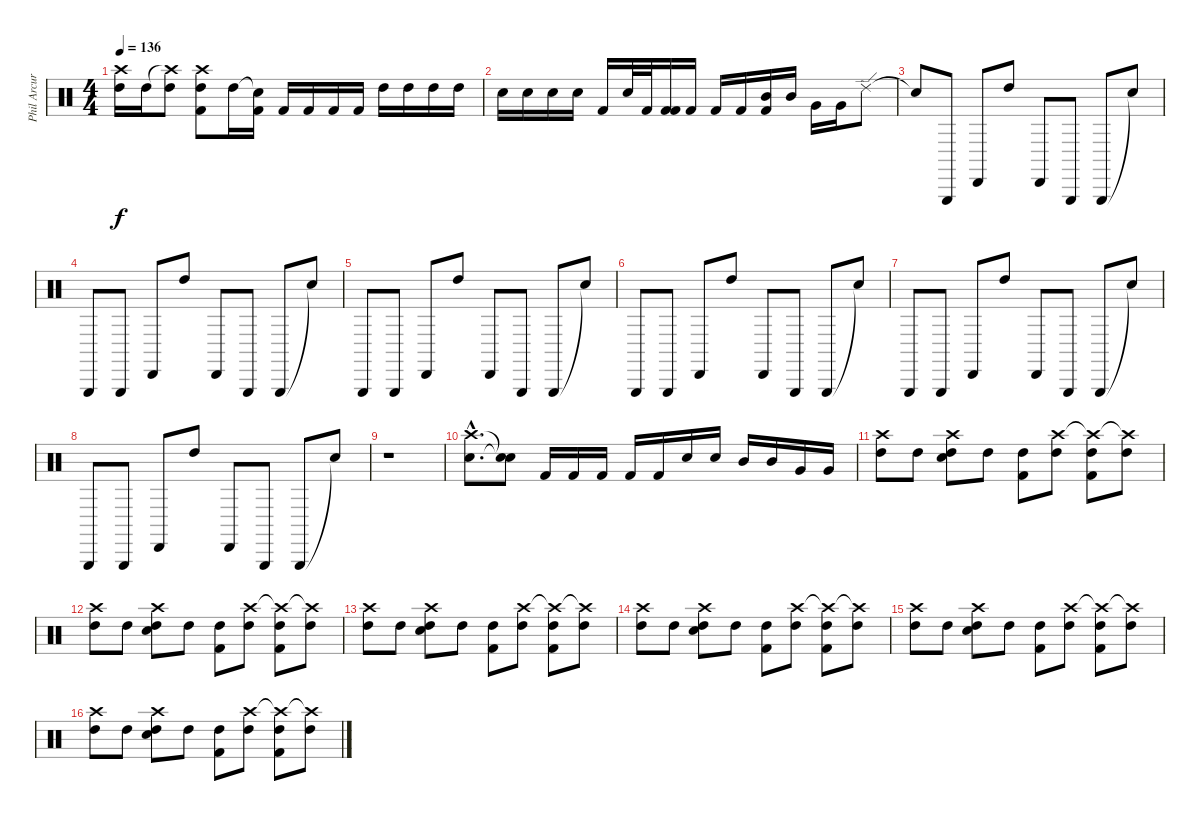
\track ("Phil Arcuri drums" "Phil Arcur") {instrument percussion}
\staff {score}
\articulation defaults
\ts (4 4)
\tempo 136
\clef neutral
\ks c
("Crash high (hit)" "High Tom (hit)").16{dy f} "High Tom (hit)".16 ("Crash high (hit)"{t} "High Tom (hit)").8 ("Crash high (hit)" "Kick (hit) 2" "High Tom (hit)").8 "High Tom (hit)".16 ("Snare (hit)"{t} "Kick (hit) 2").16 "Kick (hit) 2".16 "Kick (hit) 2".16 "Kick (hit) 2".16 "Kick (hit) 2".16 "High Tom (hit)".16 "High Tom (hit)".16 "High Tom (hit)".16 "High Tom (hit)".16 |
"Snare (hit) 2".16 "Snare (hit) 2".16 "Snare (hit) 2".16 "Snare (hit) 2".16 "Kick (hit) 2".16 "Electric Snare (hit)".32 "Kick (hit) 2".32 ("Kick (hit) 2" "Kick (hit) 2").16 "Kick (hit) 2".16 "Kick (hit) 2".16 "Kick (hit) 2".16 ("Mid Tom (hit)" "Kick (hit) 2").16 "Mid Tom (hit)".16 "Very Low Tom (hit)".16 "Very Low Tom (hit)".16 "Ride (edge) 2".8 |
"Snare (hit)"{t}.8 "Triangle (hit)".8 "Cabasa (hit)".8 "High Tom (hit)".8 "Cabasa (hit)".8 "Triangle (hit)".8 "Triangle (hit)".8 "Snare (hit)"{t}.8 |
"Triangle (hit)".8 "Triangle (hit)".8 "Cabasa (hit)".8 "High Tom (hit)".8 "Cabasa (hit)".8 "Triangle (hit)".8 "Triangle (hit)".8 "Snare (hit)"{t}.8 |
"Triangle (hit)".8 "Triangle (hit)".8 "Cabasa (hit)".8 "High Tom (hit)".8 "Cabasa (hit)".8 "Triangle (hit)".8 "Triangle (hit)".8 "Snare (hit)"{t}.8 |
"Triangle (hit)".8 "Triangle (hit)".8 "Cabasa (hit)".8 "High Tom (hit)".8 "Cabasa (hit)".8 "Triangle (hit)".8 "Triangle (hit)".8 "Snare (hit)"{t}.8 |
"Triangle (hit)".8 "Triangle (hit)".8 "Cabasa (hit)".8 "High Tom (hit)".8 "Cabasa (hit)".8 "Triangle (hit)".8 "Triangle (hit)".8 "Snare (hit)"{t}.8 |
"Triangle (hit)".8 "Triangle (hit)".8 "Cabasa (hit)".8 "High Tom (hit)".8 "Cabasa (hit)".8 "Triangle (hit)".8 "Triangle (hit)".8 "Snare (hit)"{t}.8 |
r.1 |
("Crash high (hit)"{hac} "Electric Snare (hit)"{hac}).8{d} ("Snare (hit)"{t} "Snare (hit) 2"{t}).8 "Kick (hit) 2".16 "Kick (hit) 2".16 "Kick (hit) 2".16 "Kick (hit) 2".16 "Kick (hit) 2".16 "Electric Snare (hit)".16 "Electric Snare (hit)".16 "Mid Tom (hit)".16 "Mid Tom (hit)".16 "Very Low Tom (hit)".16 "Very Low Tom (hit)".16 |
("Crash high (hit)" "High Tom (hit)").8 "High Tom (hit)".8 ("Crash high (hit)" "Snare (hit) 2" "High Tom (hit)").8 "High Tom (hit)".8 ("Kick (hit) 2" "High Tom (hit)").8 ("Crash high (hit)" "High Tom (hit)").8 ("Crash high (hit)"{t} "Kick (hit) 2" "High Tom (hit)").8 ("Crash high (hit)"{t} "High Tom (hit)").8 |
("Crash high (hit)" "High Tom (hit)").8 "High Tom (hit)".8 ("Crash high (hit)" "Snare (hit) 2" "High Tom (hit)").8 "High Tom (hit)".8 ("Kick (hit) 2" "High Tom (hit)").8 ("Crash high (hit)" "High Tom (hit)").8 ("Crash high (hit)"{t} "Kick (hit) 2" "High Tom (hit)").8 ("Crash high (hit)"{t} "High Tom (hit)").8 |
("Crash high (hit)" "High Tom (hit)").8 "High Tom (hit)".8 ("Crash high (hit)" "Snare (hit) 2" "High Tom (hit)").8 "High Tom (hit)".8 ("Kick (hit) 2" "High Tom (hit)").8 ("Crash high (hit)" "High Tom (hit)").8 ("Crash high (hit)"{t} "Kick (hit) 2" "High Tom (hit)").8 ("Crash high (hit)"{t} "High Tom (hit)").8 |
("Crash high (hit)" "High Tom (hit)").8 "High Tom (hit)".8 ("Crash high (hit)" "Snare (hit) 2" "High Tom (hit)").8 "High Tom (hit)".8 ("Kick (hit) 2" "High Tom (hit)").8 ("Crash high (hit)" "High Tom (hit)").8 ("Crash high (hit)"{t} "Kick (hit) 2" "High Tom (hit)").8 ("Crash high (hit)"{t} "High Tom (hit)").8 |
("Crash high (hit)" "High Tom (hit)").8 "High Tom (hit)".8 ("Crash high (hit)" "Snare (hit) 2" "High Tom (hit)").8 "High Tom (hit)".8 ("Kick (hit) 2" "High Tom (hit)").8 ("Crash high (hit)" "High Tom (hit)").8 ("Crash high (hit)"{t} "Kick (hit) 2" "High Tom (hit)").8 ("Crash high (hit)"{t} "High Tom (hit)").8 |
("Crash high (hit)" "High Tom (hit)").8 "High Tom (hit)".8 ("Crash high (hit)" "Snare (hit) 2" "High Tom (hit)").8 "High Tom (hit)".8 ("Kick (hit) 2" "High Tom (hit)").8 ("Crash high (hit)" "High Tom (hit)").8 ("Crash high (hit)"{t} "Kick (hit) 2" "High Tom (hit)").8 ("Crash high (hit)"{t} "High Tom (hit)").8
